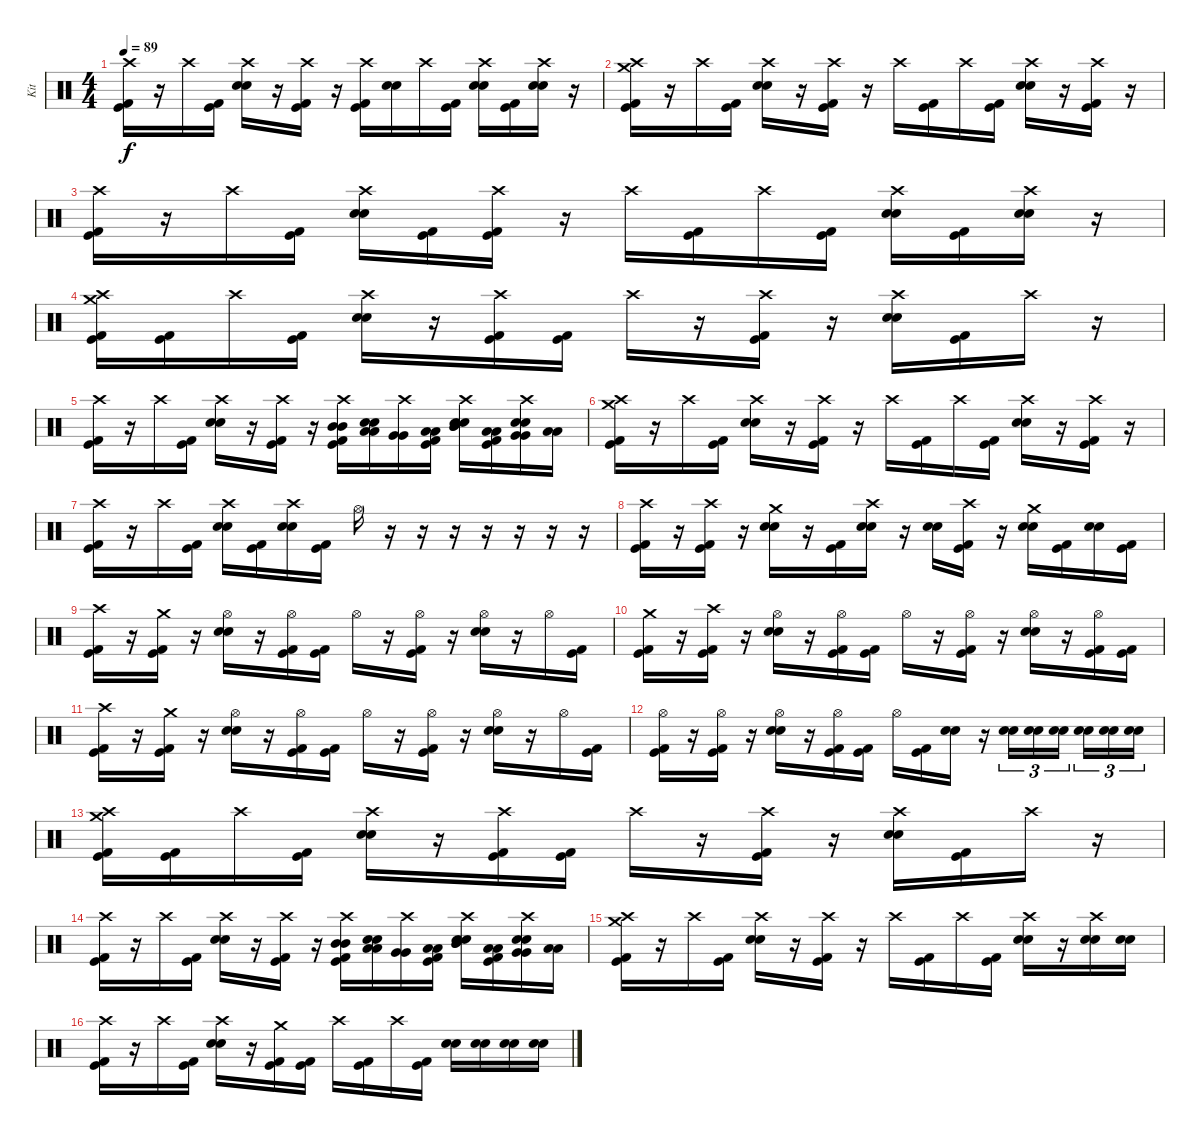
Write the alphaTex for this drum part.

\track ("Kit" "Kit") {instrument percussion}
\staff {score}
\articulation defaults
\ts (4 4)
\tempo 89
\clef neutral
\ks c
("Crash high (hit)" "Kick (hit) 2" "Kick (hit)").16{dy f} r.16 "Crash high (hit)".16 ("Kick (hit) 2" "Kick (hit)").16 ("Crash high (hit)" "Electric Snare (hit)" "Snare (hit) 2").16 r.16 ("Crash high (hit)" "Kick (hit) 2" "Kick (hit)").16 r.16 ("Crash high (hit)" "Kick (hit) 2" "Kick (hit)").16 ("Electric Snare (hit)" "Snare (hit) 2").16 "Crash high (hit)".16 ("Kick (hit) 2" "Kick (hit)").16 ("Crash high (hit)" "Snare (hit) 2" "Electric Snare (hit)").16 ("Kick (hit) 2" "Kick (hit)").16 ("Crash high (hit)" "Electric Snare (hit)" "Snare (hit) 2").16 r.16 |
("Crash high (hit)" "Crash medium (hit)" "Kick (hit) 2" "Kick (hit)").16 r.16 "Crash high (hit)".16 ("Kick (hit) 2" "Kick (hit)").16 ("Crash high (hit)" "Electric Snare (hit)" "Snare (hit) 2").16 r.16 ("Crash high (hit)" "Kick (hit) 2" "Kick (hit)").16 r.16 "Crash high (hit)".16 ("Kick (hit) 2" "Kick (hit)").16 "Crash high (hit)".16 ("Kick (hit) 2" "Kick (hit)").16 ("Crash high (hit)" "Snare (hit) 2" "Electric Snare (hit)").16 r.16 ("Crash high (hit)" "Kick (hit) 2" "Kick (hit)").16 r.16 |
("Crash high (hit)" "Kick (hit) 2" "Kick (hit)").16 r.16 "Crash high (hit)".16 ("Kick (hit) 2" "Kick (hit)").16 ("Crash high (hit)" "Electric Snare (hit)" "Snare (hit) 2").16 ("Kick (hit) 2" "Kick (hit)").16 ("Crash high (hit)" "Kick (hit) 2" "Kick (hit)").16 r.16 "Crash high (hit)".16 ("Kick (hit) 2" "Kick (hit)").16 "Crash high (hit)".16 ("Kick (hit) 2" "Kick (hit)").16 ("Crash high (hit)" "Snare (hit) 2" "Electric Snare (hit)").16 ("Kick (hit) 2" "Kick (hit)").16 ("Crash high (hit)" "Snare (hit) 2" "Electric Snare (hit)").16 r.16 |
("Crash high (hit)" "Crash medium (hit)" "Kick (hit) 2" "Kick (hit)").16 ("Kick (hit) 2" "Kick (hit)").16 "Crash high (hit)".16 ("Kick (hit) 2" "Kick (hit)").16 ("Crash high (hit)" "Electric Snare (hit)" "Snare (hit) 2").16 r.16 ("Crash high (hit)" "Kick (hit) 2" "Kick (hit)").16 ("Kick (hit) 2" "Kick (hit)").16 "Crash high (hit)".16 r.16 ("Crash high (hit)" "Kick (hit) 2" "Kick (hit)").16 r.16 ("Crash high (hit)" "Snare (hit) 2" "Electric Snare (hit)").16 ("Kick (hit) 2" "Kick (hit)").16 "Crash high (hit)".16 r.16 |
("Crash high (hit)" "Kick (hit) 2" "Kick (hit)").16 r.16 "Crash high (hit)".16 ("Kick (hit) 2" "Kick (hit)").16 ("Crash high (hit)" "Electric Snare (hit)" "Snare (hit) 2").16 r.16 ("Crash high (hit)" "Kick (hit) 2" "Kick (hit)").16 r.16 ("Crash high (hit)" "Mid Tom (hit)" "Mid Tom (hit)" "Kick (hit) 2" "Kick (hit)").16 ("Low Tom (hit)" "Low Tom (hit)" "Electric Snare (hit)" "Snare (hit) 2").16 ("Crash high (hit)" "Very Low Tom (hit)" "Very Low Tom (hit)").16 ("Low Floor Tom (hit)" "Low Floor Tom (hit)" "Kick (hit) 2" "Kick (hit)").16 ("Crash high (hit)" "Mid Tom (hit)" "Mid Tom (hit)" "Snare (hit) 2" "Electric Snare (hit)").16 ("Low Tom (hit)" "Low Tom (hit)" "Kick (hit) 2" "Kick (hit)").16 ("Crash high (hit)" "Very Low Tom (hit)" "Very Low Tom (hit)" "Electric Snare (hit)" "Snare (hit) 2").16 ("Low Floor Tom (hit)" "Low Floor Tom (hit)").16 |
("Crash high (hit)" "Crash medium (hit)" "Kick (hit) 2" "Kick (hit)").16 r.16 "Crash high (hit)".16 ("Kick (hit) 2" "Kick (hit)").16 ("Crash high (hit)" "Electric Snare (hit)" "Snare (hit) 2").16 r.16 ("Crash high (hit)" "Kick (hit) 2" "Kick (hit)").16 r.16 "Crash high (hit)".16 ("Kick (hit) 2" "Kick (hit)").16 "Crash high (hit)".16 ("Kick (hit) 2" "Kick (hit)").16 ("Crash high (hit)" "Snare (hit) 2" "Electric Snare (hit)").16 r.16 ("Crash high (hit)" "Kick (hit) 2" "Kick (hit)").16 r.16 |
("Crash high (hit)" "Kick (hit) 2" "Kick (hit)").16 r.16 "Crash high (hit)".16 ("Kick (hit) 2" "Kick (hit)").16 ("Crash high (hit)" "Electric Snare (hit)" "Snare (hit) 2").16 ("Kick (hit) 2" "Kick (hit)").16 ("Crash high (hit)" "Electric Snare (hit)" "Snare (hit) 2").16 ("Kick (hit) 2" "Kick (hit)").16 "Hi-Hat (open)".16 r.16 r.16 r.16 r.16 r.16 r.16 r.16 |
("Crash high (hit)" "Kick (hit) 2" "Kick (hit)").16 r.16 ("Crash high (hit)" "Kick (hit) 2" "Kick (hit)").16 r.16 ("Crash medium (hit)" "Snare (hit) 2" "Electric Snare (hit)").16 r.16 ("Kick (hit) 2" "Kick (hit)").16 ("Crash high (hit)" "Snare (hit) 2" "Electric Snare (hit)").16 r.16 ("Snare (hit) 2" "Electric Snare (hit)").16 ("Crash high (hit)" "Kick (hit) 2" "Kick (hit)").16 r.16 ("Crash medium (hit)" "Snare (hit) 2" "Electric Snare (hit)").16 ("Kick (hit) 2" "Kick (hit)").16 ("Snare (hit) 2" "Electric Snare (hit)").16 ("Kick (hit) 2" "Kick (hit)").16 |
("Crash high (hit)" "Kick (hit) 2" "Kick (hit)").16 r.16 ("Crash medium (hit)" "Kick (hit) 2" "Kick (hit)").16 r.16 ("Hi-Hat (open)" "Snare (hit) 2" "Electric Snare (hit)").16 r.16 ("Hi-Hat (open)" "Kick (hit) 2" "Kick (hit)").16 ("Kick (hit) 2" "Kick (hit)").16 "Hi-Hat (open)".16 r.16 ("Hi-Hat (open)" "Kick (hit) 2" "Kick (hit)").16 r.16 ("Hi-Hat (open)" "Snare (hit) 2" "Electric Snare (hit)").16 r.16 "Hi-Hat (open)".16 ("Kick (hit) 2" "Kick (hit)").16 |
("Crash medium (hit)" "Kick (hit) 2" "Kick (hit)").16 r.16 ("Crash high (hit)" "Kick (hit) 2" "Kick (hit)").16 r.16 ("Hi-Hat (open)" "Snare (hit) 2" "Electric Snare (hit)").16 r.16 ("Hi-Hat (open)" "Kick (hit) 2" "Kick (hit)").16 ("Kick (hit) 2" "Kick (hit)").16 "Hi-Hat (open)".16 r.16 ("Hi-Hat (open)" "Kick (hit) 2" "Kick (hit)").16 r.16 ("Hi-Hat (open)" "Snare (hit) 2" "Electric Snare (hit)").16 r.16 ("Hi-Hat (open)" "Kick (hit) 2" "Kick (hit)").16 ("Kick (hit) 2" "Kick (hit)").16 |
("Crash high (hit)" "Kick (hit) 2" "Kick (hit)").16 r.16 ("Crash medium (hit)" "Kick (hit) 2" "Kick (hit)").16 r.16 ("Hi-Hat (open)" "Snare (hit) 2" "Electric Snare (hit)").16 r.16 ("Hi-Hat (open)" "Kick (hit) 2" "Kick (hit)").16 ("Kick (hit) 2" "Kick (hit)").16 "Hi-Hat (open)".16 r.16 ("Hi-Hat (open)" "Kick (hit) 2" "Kick (hit)").16 r.16 ("Hi-Hat (open)" "Snare (hit) 2" "Electric Snare (hit)").16 r.16 "Hi-Hat (open)".16 ("Kick (hit) 2" "Kick (hit)").16 |
("Hi-Hat (open)" "Kick (hit) 2" "Kick (hit)").16 r.16 ("Hi-Hat (open)" "Kick (hit) 2" "Kick (hit)").16 r.16 ("Hi-Hat (open)" "Snare (hit) 2" "Electric Snare (hit)").16 r.16 ("Hi-Hat (open)" "Kick (hit) 2" "Kick (hit)").16 ("Kick (hit) 2" "Kick (hit)").16 "Hi-Hat (open)".16 ("Kick (hit) 2" "Kick (hit)").16 ("Snare (hit) 2" "Electric Snare (hit)").16 r.16 ("Snare (hit) 2" "Electric Snare (hit)").16{tu (3 2)} ("Snare (hit) 2" "Electric Snare (hit)").16{tu (3 2)} ("Snare (hit) 2" "Electric Snare (hit)").16{tu (3 2) beam splitsecondary} ("Snare (hit) 2" "Electric Snare (hit)").16{tu (3 2)} ("Snare (hit) 2" "Electric Snare (hit)").16{tu (3 2)} ("Snare (hit) 2" "Electric Snare (hit)").16{tu (3 2)} |
("Crash high (hit)" "Crash medium (hit)" "Kick (hit) 2" "Kick (hit)").16 ("Kick (hit) 2" "Kick (hit)").16 "Crash high (hit)".16 ("Kick (hit) 2" "Kick (hit)").16 ("Crash high (hit)" "Electric Snare (hit)" "Snare (hit) 2").16 r.16 ("Crash high (hit)" "Kick (hit) 2" "Kick (hit)").16 ("Kick (hit) 2" "Kick (hit)").16 "Crash high (hit)".16 r.16 ("Crash high (hit)" "Kick (hit) 2" "Kick (hit)").16 r.16 ("Crash high (hit)" "Snare (hit) 2" "Electric Snare (hit)").16 ("Kick (hit) 2" "Kick (hit)").16 "Crash high (hit)".16 r.16 |
("Crash high (hit)" "Kick (hit) 2" "Kick (hit)").16 r.16 "Crash high (hit)".16 ("Kick (hit) 2" "Kick (hit)").16 ("Crash high (hit)" "Electric Snare (hit)" "Snare (hit) 2").16 r.16 ("Crash high (hit)" "Kick (hit) 2" "Kick (hit)").16 r.16 ("Crash high (hit)" "Mid Tom (hit)" "Mid Tom (hit)" "Kick (hit) 2" "Kick (hit)").16 ("Low Tom (hit)" "Low Tom (hit)" "Electric Snare (hit)" "Snare (hit) 2").16 ("Crash high (hit)" "Very Low Tom (hit)" "Very Low Tom (hit)").16 ("Low Floor Tom (hit)" "Low Floor Tom (hit)" "Kick (hit) 2" "Kick (hit)").16 ("Crash high (hit)" "Mid Tom (hit)" "Mid Tom (hit)" "Snare (hit) 2" "Electric Snare (hit)").16 ("Low Tom (hit)" "Low Tom (hit)" "Kick (hit) 2" "Kick (hit)").16 ("Crash high (hit)" "Very Low Tom (hit)" "Very Low Tom (hit)" "Electric Snare (hit)" "Snare (hit) 2").16 ("Low Floor Tom (hit)" "Low Floor Tom (hit)").16 |
("Crash high (hit)" "Crash medium (hit)" "Kick (hit) 2" "Kick (hit)").16 r.16 "Crash high (hit)".16 ("Kick (hit) 2" "Kick (hit)").16 ("Crash high (hit)" "Electric Snare (hit)" "Snare (hit) 2").16 r.16 ("Crash high (hit)" "Kick (hit) 2" "Kick (hit)").16 r.16 "Crash high (hit)".16 ("Kick (hit) 2" "Kick (hit)").16 "Crash high (hit)".16 ("Kick (hit) 2" "Kick (hit)").16 ("Crash high (hit)" "Snare (hit) 2" "Electric Snare (hit)").16 r.16 ("Crash high (hit)" "Snare (hit) 2" "Electric Snare (hit)").16 ("Snare (hit) 2" "Electric Snare (hit)").16 |
("Crash high (hit)" "Kick (hit) 2" "Kick (hit)").16 r.16 "Crash high (hit)".16 ("Kick (hit) 2" "Kick (hit)").16 ("Crash high (hit)" "Electric Snare (hit)" "Snare (hit) 2").16 r.16 ("Crash medium (hit)" "Kick (hit) 2" "Kick (hit)").16 ("Kick (hit) 2" "Kick (hit)").16 "Crash high (hit)".16 ("Kick (hit) 2" "Kick (hit)").16 "Crash high (hit)".16 ("Kick (hit) 2" "Kick (hit)").16 ("Snare (hit) 2" "Electric Snare (hit)").16 ("Snare (hit) 2" "Electric Snare (hit)").16 ("Snare (hit) 2" "Electric Snare (hit)").16 ("Snare (hit) 2" "Electric Snare (hit)").16
